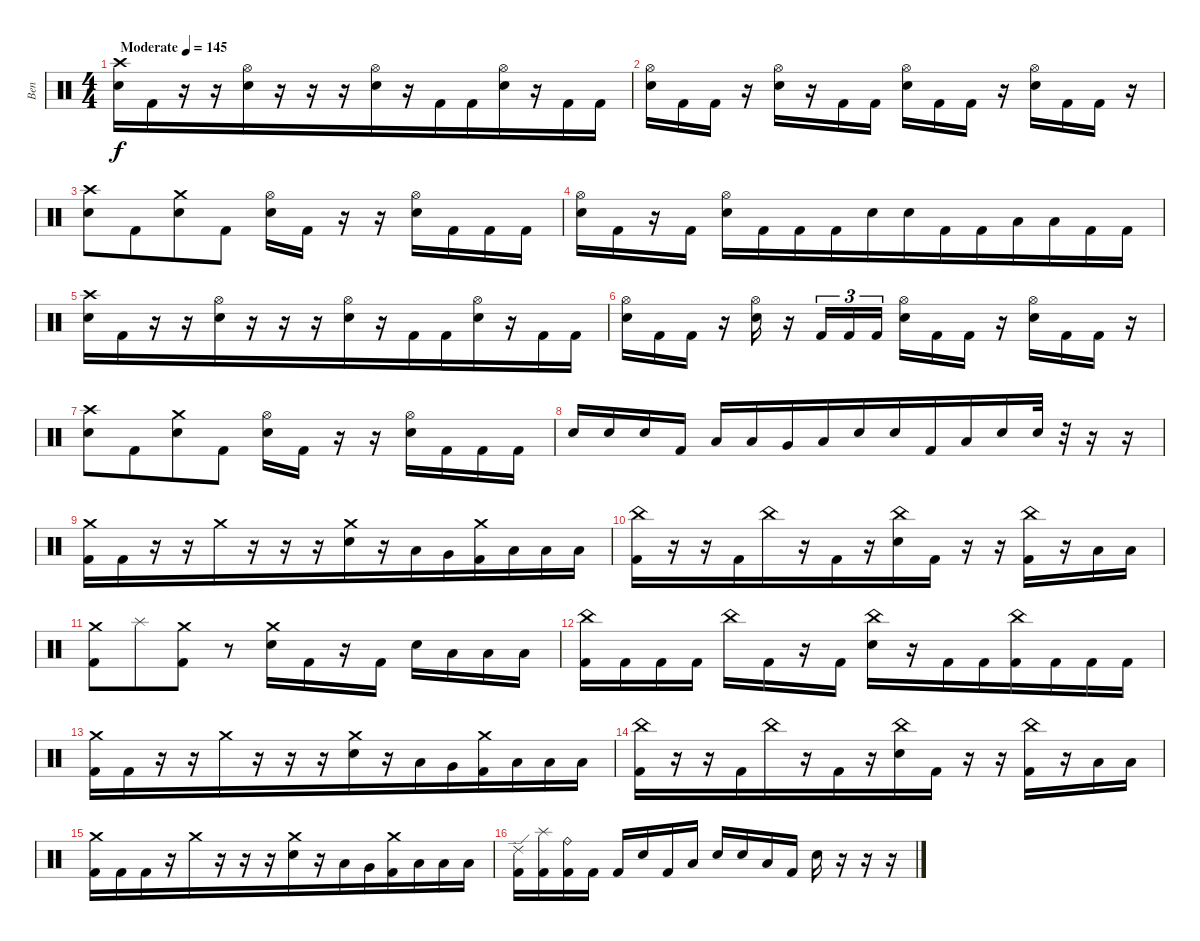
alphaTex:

\track ("Ben" "Ben") {instrument percussion}
\staff {score}
\articulation defaults
\ts (4 4)
\tempo (145 "Moderate")
\clef neutral
\ks c
("Electric Snare (hit)" "Crash high (hit)").16{dy f} "Kick (hit) 2".16{beam merge} r.16{beam merge} r.16 ("Hi-Hat (open)" "Electric Snare (hit)").16{beam merge} r.16 r.16 r.16{beam merge} ("Electric Snare (hit)" "Hi-Hat (open)").16{beam merge} r.16{beam merge} "Kick (hit) 2".16{beam merge} "Kick (hit) 2".16{beam merge} ("Electric Snare (hit)" "Hi-Hat (open)").16{beam merge} r.16 "Kick (hit) 2".16 "Kick (hit) 2".16 |
("Electric Snare (hit)" "Hi-Hat (open)").16 "Kick (hit) 2".16 "Kick (hit) 2".16 r.16 ("Hi-Hat (open)" "Electric Snare (hit)").16{beam merge} r.16{beam merge} "Kick (hit) 2".16{beam merge} "Kick (hit) 2".16 ("Electric Snare (hit)" "Hi-Hat (open)").16{beam merge} "Kick (hit) 2".16{beam merge} "Kick (hit) 2".16 r.16{beam merge} ("Electric Snare (hit)" "Hi-Hat (open)").16 "Kick (hit) 2".16{beam merge} "Kick (hit) 2".16{beam merge} r.16 |
("Electric Snare (hit)" "Crash high (hit)").8 "Kick (hit) 2".8{beam merge} ("Electric Snare (hit)" "Crash medium (hit)").8 "Kick (hit) 2".8 ("Electric Snare (hit)" "Hi-Hat (open)").16{beam merge} "Kick (hit) 2".16 r.16{beam merge} r.16 ("Electric Snare (hit)" "Hi-Hat (open)").16 "Kick (hit) 2".16{beam merge} "Kick (hit) 2".16 "Kick (hit) 2".16 |
("Hi-Hat (open)" "Electric Snare (hit)").16{beam merge} "Kick (hit) 2".16{beam merge} r.16{beam merge} "Kick (hit) 2".16 ("Hi-Hat (open)" "Electric Snare (hit)").16 "Kick (hit) 2".16{beam merge} "Kick (hit) 2".16 "Kick (hit) 2".16{beam merge} "Electric Snare (hit)".16{beam merge} "Electric Snare (hit)".16 "Kick (hit) 2".16 "Kick (hit) 2".16{beam merge} "Low Tom (hit)".16{beam merge} "Low Tom (hit)".16 "Kick (hit) 2".16{beam merge} "Kick (hit) 2".16 |
("Electric Snare (hit)" "Crash high (hit)").16 "Kick (hit) 2".16{beam merge} r.16{beam merge} r.16 ("Hi-Hat (open)" "Electric Snare (hit)").16{beam merge} r.16 r.16 r.16{beam merge} ("Electric Snare (hit)" "Hi-Hat (open)").16{beam merge} r.16{beam merge} "Kick (hit) 2".16{beam merge} "Kick (hit) 2".16{beam merge} ("Electric Snare (hit)" "Hi-Hat (open)").16{beam merge} r.16 "Kick (hit) 2".16 "Kick (hit) 2".16 |
("Electric Snare (hit)" "Hi-Hat (open)").16 "Kick (hit) 2".16 "Kick (hit) 2".16 r.16 ("Hi-Hat (open)" "Electric Snare (hit)").16 r.16{beam merge} "Kick (hit) 2".16{tu (3 2) beam merge} "Kick (hit) 2".16{tu (3 2) beam merge} "Kick (hit) 2".16{tu (3 2)} ("Electric Snare (hit)" "Hi-Hat (open)").16{beam merge} "Kick (hit) 2".16{beam merge} "Kick (hit) 2".16 r.16{beam merge} ("Electric Snare (hit)" "Hi-Hat (open)").16 "Kick (hit) 2".16{beam merge} "Kick (hit) 2".16{beam merge} r.16 |
("Electric Snare (hit)" "Crash high (hit)").8 "Kick (hit) 2".8{beam merge} ("Electric Snare (hit)" "Crash medium (hit)").8 "Kick (hit) 2".8 ("Electric Snare (hit)" "Hi-Hat (open)").16{beam merge} "Kick (hit) 2".16 r.16{beam merge} r.16 ("Electric Snare (hit)" "Hi-Hat (open)").16 "Kick (hit) 2".16{beam merge} "Kick (hit) 2".16 "Kick (hit) 2".16 |
"Electric Snare (hit)".16 "Electric Snare (hit)".16 "Electric Snare (hit)".16 "Kick (hit) 2".16 "Low Tom (hit)".16 "Low Tom (hit)".16{beam merge} "Very Low Tom (hit)".16{beam merge} "Low Floor Tom (hit)".16{beam merge} "Electric Snare (hit)".16 "Electric Snare (hit)".16 "Kick (hit) 2".16{beam merge} "Low Tom (hit)".16{beam merge} "Electric Snare (hit)".16 "Electric Snare (hit)".32{beam merge} r.32 r.16 r.16 |
("Kick (hit) 2" "Crash medium (hit)").16 "Kick (hit) 2".16{beam merge} r.16{beam merge} r.16 "Crash medium (hit)".16{beam merge} r.16 r.16 r.16{beam merge} ("Electric Snare (hit)" "Crash medium (hit)").16{beam merge} r.16{beam merge} "Low Tom (hit)".16{beam merge} "Very Low Tom (hit)".16{beam merge} ("Kick (hit) 2" "Crash medium (hit)").16{beam merge} "Low Floor Tom (hit)".16 "Low Floor Tom (hit)".16 "Low Floor Tom (hit)".16 |
("China (hit)" "Kick (hit) 2").16 r.16{beam merge} r.16{beam merge} "Kick (hit) 2".16{beam merge} "China (hit)".16{beam merge} r.16 "Kick (hit) 2".16{beam merge} r.16 ("China (hit)" "Electric Snare (hit)").16 "Kick (hit) 2".16 r.16{beam merge} r.16{beam merge} ("China (hit)" "Kick (hit) 2").16{beam merge} r.16 "Low Floor Tom (hit)".16{beam merge} "Low Floor Tom (hit)".16 |
("Kick (hit) 2" "Crash medium (hit)").8 "Splash (hit)".8{beam merge} ("Kick (hit) 2" "Crash medium (hit)").8 r.8 ("Electric Snare (hit)" "Crash medium (hit)").16{beam merge} "Kick (hit) 2".16 r.16{beam merge} "Kick (hit) 2".16 "Electric Snare (hit)".16 "Low Tom (hit)".16{beam merge} "Low Tom (hit)".16 "Low Tom (hit)".16 |
("Kick (hit) 2" "China (hit)").16{beam merge} "Kick (hit) 2".16 "Kick (hit) 2".16 "Kick (hit) 2".16 "China (hit)".16 "Kick (hit) 2".16 r.16 "Kick (hit) 2".16 ("Electric Snare (hit)" "China (hit)").16{beam merge} r.16 "Kick (hit) 2".16{beam merge} "Kick (hit) 2".16{beam merge} ("Kick (hit) 2" "China (hit)").16 "Kick (hit) 2".16{beam merge} "Kick (hit) 2".16 "Kick (hit) 2".16 |
("Kick (hit) 2" "Crash medium (hit)").16 "Kick (hit) 2".16{beam merge} r.16{beam merge} r.16 "Crash medium (hit)".16{beam merge} r.16 r.16 r.16{beam merge} ("Electric Snare (hit)" "Crash medium (hit)").16{beam merge} r.16{beam merge} "Low Tom (hit)".16{beam merge} "Very Low Tom (hit)".16{beam merge} ("Kick (hit) 2" "Crash medium (hit)").16{beam merge} "Low Floor Tom (hit)".16 "Low Floor Tom (hit)".16 "Low Floor Tom (hit)".16 |
("China (hit)" "Kick (hit) 2").16 r.16{beam merge} r.16{beam merge} "Kick (hit) 2".16{beam merge} "China (hit)".16{beam merge} r.16 "Kick (hit) 2".16{beam merge} r.16 ("China (hit)" "Electric Snare (hit)").16 "Kick (hit) 2".16 r.16{beam merge} r.16{beam merge} ("China (hit)" "Kick (hit) 2").16{beam merge} r.16 "Low Floor Tom (hit)".16{beam merge} "Low Floor Tom (hit)".16 |
("Kick (hit) 2" "Crash medium (hit)").16 "Kick (hit) 2".16{beam merge} "Kick (hit) 2".16{beam merge} r.16 "Crash medium (hit)".16{beam merge} r.16 r.16 r.16{beam merge} ("Electric Snare (hit)" "Crash medium (hit)").16{beam merge} r.16{beam merge} "Low Tom (hit)".16{beam merge} "Very Low Tom (hit)".16{beam merge} ("Kick (hit) 2" "Crash medium (hit)").16{beam merge} "Low Floor Tom (hit)".16 "Low Floor Tom (hit)".16 "Low Floor Tom (hit)".16 |
("Kick (hit) 2" "Ride (edge) 2").16{beam merge} ("Kick (hit) 2" "Splash (hit)").16{beam merge} ("Kick (hit) 2" "Ride (bell)").16 "Kick (hit) 2".16 "Kick (hit) 2".16 "Electric Snare (hit)".16{beam merge} "Kick (hit) 2".16{beam merge} "Low Tom (hit)".16 "Electric Snare (hit)".16{beam merge} "Electric Snare (hit)".16{beam merge} "Low Floor Tom (hit)".16{beam merge} "Kick (hit) 2".16 "Electric Snare (hit)".16 r.16{beam merge} r.16{beam merge} r.16
